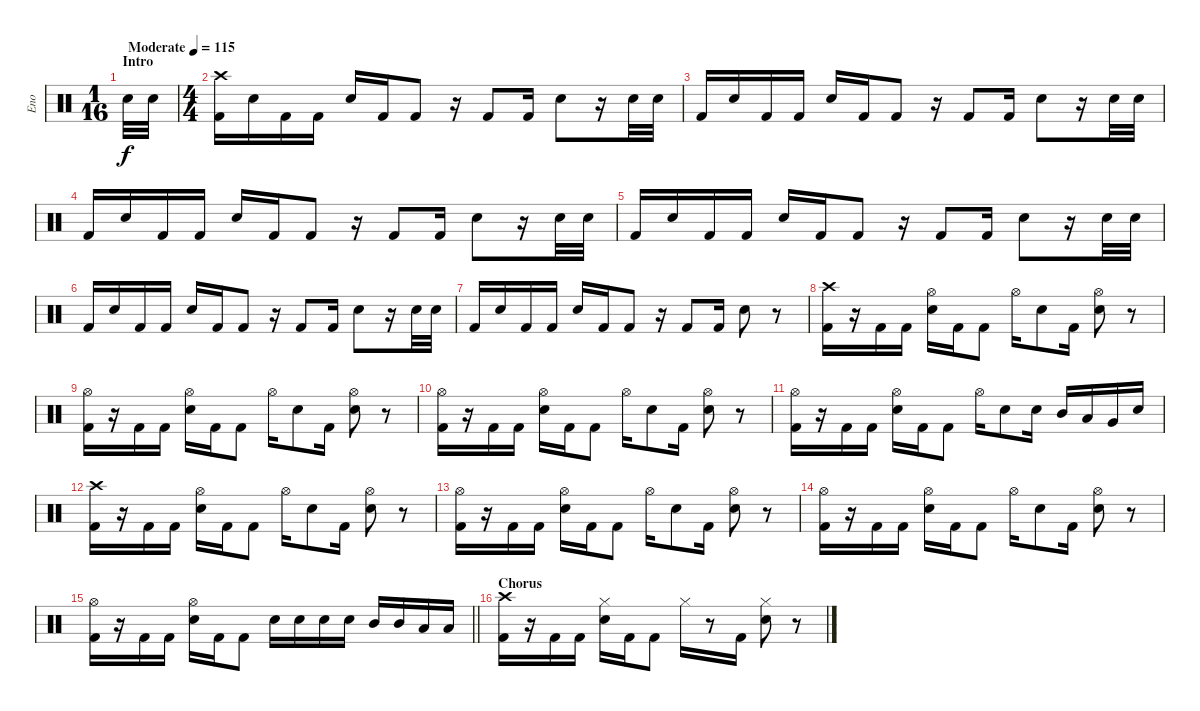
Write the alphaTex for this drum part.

\track ("Eno" "Eno") {instrument percussion}
\staff {score}
\articulation defaults
\ts (1 16)
\section ("" "Intro")
\tempo (115 "Moderate")
\clef neutral
\ks c "Electric Snare (hit)".32{dy f} "Electric Snare (hit)".32
|
\ts (4 4)
("Kick (hit) 2" "Crash high (hit)").16 "Electric Snare (hit)".16 "Kick (hit) 2".16 "Kick (hit) 2".16 "Electric Snare (hit)".16 "Kick (hit) 2".16 "Kick (hit) 2".8 r.16 "Kick (hit) 2".8 "Kick (hit) 2".16 "Electric Snare (hit)".8 r.16 "Electric Snare (hit)".32 "Electric Snare (hit)".32 |
"Kick (hit) 2".16 "Electric Snare (hit)".16 "Kick (hit) 2".16 "Kick (hit) 2".16 "Electric Snare (hit)".16 "Kick (hit) 2".16 "Kick (hit) 2".8 r.16 "Kick (hit) 2".8 "Kick (hit) 2".16 "Electric Snare (hit)".8 r.16 "Electric Snare (hit)".32 "Electric Snare (hit)".32 |
"Kick (hit) 2".16 "Electric Snare (hit)".16 "Kick (hit) 2".16 "Kick (hit) 2".16 "Electric Snare (hit)".16 "Kick (hit) 2".16 "Kick (hit) 2".8 r.16 "Kick (hit) 2".8 "Kick (hit) 2".16 "Electric Snare (hit)".8 r.16 "Electric Snare (hit)".32 "Electric Snare (hit)".32 |
"Kick (hit) 2".16 "Electric Snare (hit)".16 "Kick (hit) 2".16 "Kick (hit) 2".16 "Electric Snare (hit)".16 "Kick (hit) 2".16 "Kick (hit) 2".8 r.16 "Kick (hit) 2".8 "Kick (hit) 2".16 "Electric Snare (hit)".8 r.16 "Electric Snare (hit)".32 "Electric Snare (hit)".32 |
"Kick (hit) 2".16 "Electric Snare (hit)".16 "Kick (hit) 2".16 "Kick (hit) 2".16 "Electric Snare (hit)".16 "Kick (hit) 2".16 "Kick (hit) 2".8 r.16 "Kick (hit) 2".8 "Kick (hit) 2".16 "Electric Snare (hit)".8 r.16 "Electric Snare (hit)".32 "Electric Snare (hit)".32 |
"Kick (hit) 2".16 "Electric Snare (hit)".16 "Kick (hit) 2".16 "Kick (hit) 2".16 "Electric Snare (hit)".16 "Kick (hit) 2".16 "Kick (hit) 2".8 r.16 "Kick (hit) 2".8 "Kick (hit) 2".16 "Electric Snare (hit)".8 r.8 |
("Kick (hit) 2" "Crash high (hit)").16 r.16 "Kick (hit) 2".16 "Kick (hit) 2".16 ("Electric Snare (hit)" "Hi-Hat (open)").16 "Kick (hit) 2".16 "Kick (hit) 2".8 "Hi-Hat (open)".16 "Electric Snare (hit)".8 "Kick (hit) 2".16 ("Electric Snare (hit)" "Hi-Hat (open)").8 r.8 |
("Kick (hit) 2" "Hi-Hat (open)").16 r.16 "Kick (hit) 2".16 "Kick (hit) 2".16 ("Electric Snare (hit)" "Hi-Hat (open)").16 "Kick (hit) 2".16 "Kick (hit) 2".8 "Hi-Hat (open)".16 "Electric Snare (hit)".8 "Kick (hit) 2".16 ("Electric Snare (hit)" "Hi-Hat (open)").8 r.8 |
("Kick (hit) 2" "Hi-Hat (open)").16 r.16 "Kick (hit) 2".16 "Kick (hit) 2".16 ("Electric Snare (hit)" "Hi-Hat (open)").16 "Kick (hit) 2".16 "Kick (hit) 2".8 "Hi-Hat (open)".16 "Electric Snare (hit)".8 "Kick (hit) 2".16 ("Electric Snare (hit)" "Hi-Hat (open)").8 r.8 |
("Kick (hit) 2" "Hi-Hat (open)").16 r.16 "Kick (hit) 2".16 "Kick (hit) 2".16 ("Electric Snare (hit)" "Hi-Hat (open)").16 "Kick (hit) 2".16 "Kick (hit) 2".8 "Hi-Hat (open)".16 "Electric Snare (hit)".8 "Electric Snare (hit)".16 "Mid Tom (hit)".16 "Low Tom (hit)".16 "Very Low Tom (hit)".16 "Electric Snare (hit)".16 |
("Kick (hit) 2" "Crash high (hit)").16 r.16 "Kick (hit) 2".16 "Kick (hit) 2".16 ("Electric Snare (hit)" "Hi-Hat (open)").16 "Kick (hit) 2".16 "Kick (hit) 2".8 "Hi-Hat (open)".16 "Electric Snare (hit)".8 "Kick (hit) 2".16 ("Electric Snare (hit)" "Hi-Hat (open)").8 r.8 |
("Kick (hit) 2" "Hi-Hat (open)").16 r.16 "Kick (hit) 2".16 "Kick (hit) 2".16 ("Electric Snare (hit)" "Hi-Hat (open)").16 "Kick (hit) 2".16 "Kick (hit) 2".8 "Hi-Hat (open)".16 "Electric Snare (hit)".8 "Kick (hit) 2".16 ("Electric Snare (hit)" "Hi-Hat (open)").8 r.8 |
("Kick (hit) 2" "Hi-Hat (open)").16 r.16 "Kick (hit) 2".16 "Kick (hit) 2".16 ("Electric Snare (hit)" "Hi-Hat (open)").16 "Kick (hit) 2".16 "Kick (hit) 2".8 "Hi-Hat (open)".16 "Electric Snare (hit)".8 "Kick (hit) 2".16 ("Electric Snare (hit)" "Hi-Hat (open)").8 r.8 |
\barLineRight lightlight
("Kick (hit) 2" "Hi-Hat (open)").16 r.16 "Kick (hit) 2".16 "Kick (hit) 2".16 ("Electric Snare (hit)" "Hi-Hat (open)").16 "Kick (hit) 2".16 "Kick (hit) 2".8 "Electric Snare (hit)".16 "Electric Snare (hit)".16 "Electric Snare (hit)".16 "Electric Snare (hit)".16 "Mid Tom (hit)".16 "Mid Tom (hit)".16 "Low Tom (hit)".16 "Low Tom (hit)".16 |
\section ("" "Chorus")
("Kick (hit) 2" "Crash high (hit)").16 r.16 "Kick (hit) 2".16 "Kick (hit) 2".16 ("Electric Snare (hit)" "Hi-Hat (closed)").16 "Kick (hit) 2".16 "Kick (hit) 2".8 "Hi-Hat (closed)".16 r.8 "Kick (hit) 2".16 ("Electric Snare (hit)" "Hi-Hat (closed)").8 r.8
